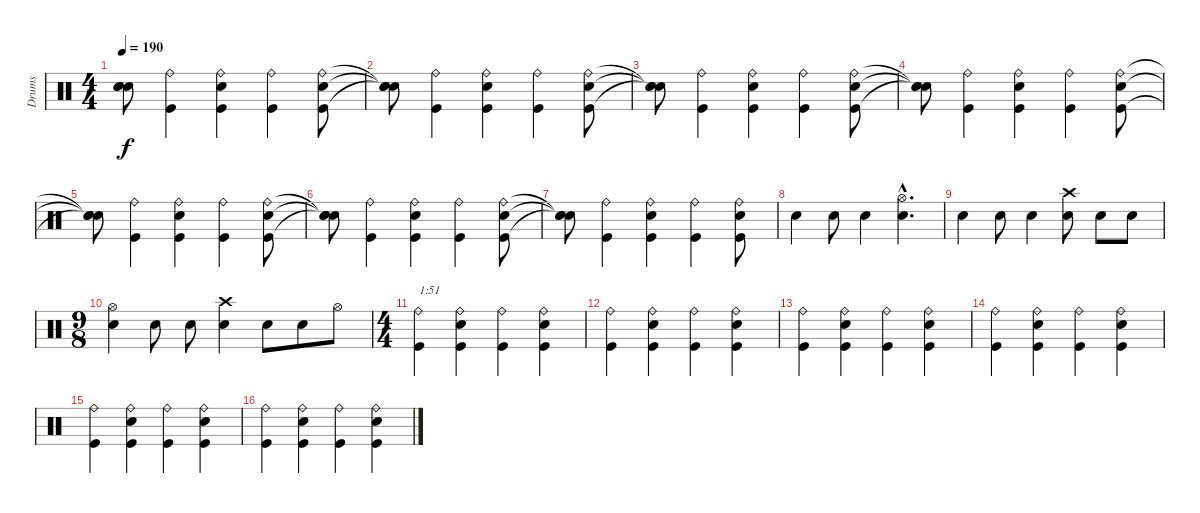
\track ("Drums" "Drums") {instrument percussion}
\staff {score}
\articulation defaults
\ts (4 4)
\tempo 190
\clef neutral
\ks c
("Snare (hit)"{t} "Snare (hit)"{t} "Snare (hit)"{t}).8{dy f} ("Kick (hit)" "Ride (bell)").4 ("Kick (hit)" "Snare (hit) 2" "Ride (bell)").4 ("Kick (hit)" "Ride (bell)").4 ("Kick (hit)" "Snare (hit) 2" "Ride (bell)").8 |
("Snare (hit)"{t} "Snare (hit)"{t} "Snare (hit)"{t}).8 ("Kick (hit)" "Ride (bell)").4 ("Kick (hit)" "Snare (hit) 2" "Ride (bell)").4 ("Kick (hit)" "Ride (bell)").4 ("Kick (hit)" "Snare (hit) 2" "Ride (bell)").8 |
("Snare (hit)"{t} "Snare (hit)"{t} "Snare (hit)"{t}).8 ("Kick (hit)" "Ride (bell)").4 ("Kick (hit)" "Snare (hit) 2" "Ride (bell)").4 ("Kick (hit)" "Ride (bell)").4 ("Kick (hit)" "Snare (hit) 2" "Ride (bell)").8 |
("Snare (hit)"{t} "Snare (hit)"{t} "Snare (hit)"{t}).8 ("Kick (hit)" "Ride (bell)").4 ("Kick (hit)" "Snare (hit) 2" "Ride (bell)").4 ("Kick (hit)" "Ride (bell)").4 ("Kick (hit)" "Snare (hit) 2" "Ride (bell)").8 |
("Snare (hit)"{t} "Snare (hit)"{t} "Snare (hit)"{t}).8 ("Kick (hit)" "Ride (bell)").4 ("Kick (hit)" "Snare (hit) 2" "Ride (bell)").4 ("Kick (hit)" "Ride (bell)").4 ("Kick (hit)" "Snare (hit) 2" "Ride (bell)").8 |
("Snare (hit)"{t} "Snare (hit)"{t} "Snare (hit)"{t}).8 ("Kick (hit)" "Ride (bell)").4 ("Kick (hit)" "Snare (hit) 2" "Ride (bell)").4 ("Kick (hit)" "Ride (bell)").4 ("Kick (hit)" "Snare (hit) 2" "Ride (bell)").8 |
("Snare (hit)"{t} "Snare (hit)"{t} "Snare (hit)"{t}).8 ("Kick (hit)" "Ride (bell)").4 ("Kick (hit)" "Snare (hit) 2" "Ride (bell)").4 ("Kick (hit)" "Ride (bell)").4 ("Kick (hit)" "Snare (hit) 2" "Ride (bell)").8 |
"Snare (hit) 2".4 "Snare (hit) 2".8 "Snare (hit) 2".4 ("Snare (hit) 2"{hac} "Hi-Hat (open)"{hac}).4{d} |
"Snare (hit) 2".4 "Snare (hit) 2".8 "Snare (hit) 2".4 ("Snare (hit) 2" "Crash high (hit)").8 "Snare (hit) 2".8 "Snare (hit) 2".8 |
\ts (9 8)
("Snare (hit) 2" "Hi-Hat (open)").4 "Snare (hit) 2".8 "Snare (hit) 2".8 ("Snare (hit) 2" "Crash high (hit)").4 "Snare (hit) 2".8 "Snare (hit) 2".8 "Hi-Hat (open)".8 |
\ts (4 4)
("Kick (hit)" "Ride (bell)").4{txt "1:51"} ("Kick (hit)" "Snare (hit) 2" "Ride (bell)").4 ("Kick (hit)" "Ride (bell)").4 ("Kick (hit)" "Snare (hit) 2" "Ride (bell)").4 |
("Kick (hit)" "Ride (bell)").4 ("Kick (hit)" "Snare (hit) 2" "Ride (bell)").4 ("Kick (hit)" "Ride (bell)").4 ("Kick (hit)" "Snare (hit) 2" "Ride (bell)").4 |
("Kick (hit)" "Ride (bell)").4 ("Kick (hit)" "Snare (hit) 2" "Ride (bell)").4 ("Kick (hit)" "Ride (bell)").4 ("Kick (hit)" "Snare (hit) 2" "Ride (bell)").4 |
("Kick (hit)" "Ride (bell)").4 ("Kick (hit)" "Snare (hit) 2" "Ride (bell)").4 ("Kick (hit)" "Ride (bell)").4 ("Kick (hit)" "Snare (hit) 2" "Ride (bell)").4 |
("Kick (hit)" "Ride (bell)").4 ("Kick (hit)" "Snare (hit) 2" "Ride (bell)").4 ("Kick (hit)" "Ride (bell)").4 ("Kick (hit)" "Snare (hit) 2" "Ride (bell)").4 |
("Kick (hit)" "Ride (bell)").4 ("Kick (hit)" "Snare (hit) 2" "Ride (bell)").4 ("Kick (hit)" "Ride (bell)").4 ("Kick (hit)" "Snare (hit) 2" "Ride (bell)").4
